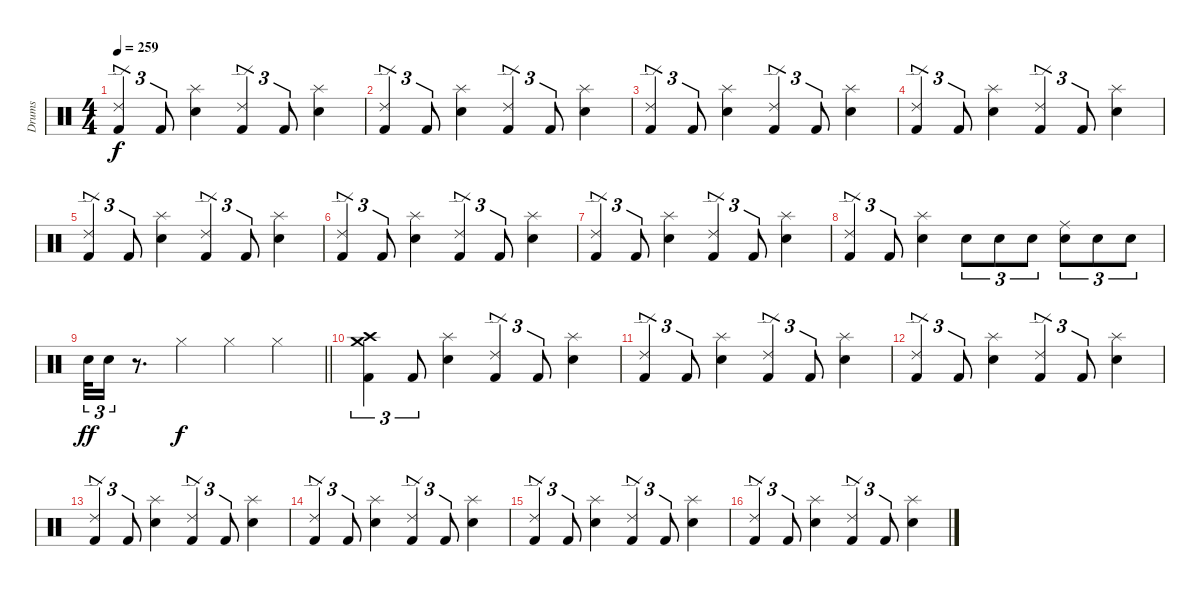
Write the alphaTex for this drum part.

\track ("Drums" "Drums") {instrument percussion}
\staff {score}
\articulation defaults
\ts (4 4)
\tempo 259
\clef neutral
\ks c
("Ride (edge) 2" "Kick (hit) 2").4{tu (3 2) dy f} "Kick (hit) 2".8{tu (3 2)} ("Splash (hit)" "Snare (hit) 2").4 ("Ride (edge) 2" "Kick (hit) 2").4{tu (3 2)} "Kick (hit) 2".8{tu (3 2)} ("Splash (hit)" "Snare (hit) 2").4 |
("Ride (edge) 2" "Kick (hit) 2").4{tu (3 2)} "Kick (hit) 2".8{tu (3 2)} ("Splash (hit)" "Snare (hit) 2").4 ("Ride (edge) 2" "Kick (hit) 2").4{tu (3 2)} "Kick (hit) 2".8{tu (3 2)} ("Splash (hit)" "Snare (hit) 2").4 |
("Ride (edge) 2" "Kick (hit) 2").4{tu (3 2)} "Kick (hit) 2".8{tu (3 2)} ("Splash (hit)" "Snare (hit) 2").4 ("Ride (edge) 2" "Kick (hit) 2").4{tu (3 2)} "Kick (hit) 2".8{tu (3 2)} ("Splash (hit)" "Snare (hit) 2").4 |
("Ride (edge) 2" "Kick (hit) 2").4{tu (3 2)} "Kick (hit) 2".8{tu (3 2)} ("Splash (hit)" "Snare (hit) 2").4 ("Ride (edge) 2" "Kick (hit) 2").4{tu (3 2)} "Kick (hit) 2".8{tu (3 2)} ("Splash (hit)" "Snare (hit) 2").4 |
("Ride (edge) 2" "Kick (hit) 2").4{tu (3 2)} "Kick (hit) 2".8{tu (3 2)} ("Splash (hit)" "Snare (hit) 2").4 ("Ride (edge) 2" "Kick (hit) 2").4{tu (3 2)} "Kick (hit) 2".8{tu (3 2)} ("Splash (hit)" "Snare (hit) 2").4 |
("Ride (edge) 2" "Kick (hit) 2").4{tu (3 2)} "Kick (hit) 2".8{tu (3 2)} ("Splash (hit)" "Snare (hit) 2").4 ("Ride (edge) 2" "Kick (hit) 2").4{tu (3 2)} "Kick (hit) 2".8{tu (3 2)} ("Splash (hit)" "Snare (hit) 2").4 |
("Ride (edge) 2" "Kick (hit) 2").4{tu (3 2)} "Kick (hit) 2".8{tu (3 2)} ("Splash (hit)" "Snare (hit) 2").4 ("Ride (edge) 2" "Kick (hit) 2").4{tu (3 2)} "Kick (hit) 2".8{tu (3 2)} ("Splash (hit)" "Snare (hit) 2").4 |
("Ride (edge) 2" "Kick (hit) 2").4{tu (3 2)} "Kick (hit) 2".8{tu (3 2)} ("Splash (hit)" "Snare (hit) 2").4 "Electric Snare (hit)".8{tu (3 2)} "Electric Snare (hit)".8{tu (3 2)} "Electric Snare (hit)".8{tu (3 2)} ("Electric Snare (hit)" "Ride (middle)").8{tu (3 2)} "Electric Snare (hit)".8{tu (3 2)} "Electric Snare (hit)".8{tu (3 2)} |
\barLineRight lightlight "Electric Snare (hit)".32{tu (3 2) dy ff} "Electric Snare (hit)".16{tu (3 2)}
r.8{d} "Hi-Hat (closed)".4{dy f} "Hi-Hat (closed)".4 "Hi-Hat (closed)".4 |
("Crash high (hit)" "Crash medium (hit)" "Kick (hit) 2").4{tu (3 2)} "Kick (hit) 2".8{tu (3 2)} ("Splash (hit)" "Snare (hit) 2").4 ("Ride (edge) 2" "Kick (hit) 2").4{tu (3 2)} "Kick (hit) 2".8{tu (3 2)} ("Splash (hit)" "Snare (hit) 2").4 |
("Ride (edge) 2" "Kick (hit) 2").4{tu (3 2)} "Kick (hit) 2".8{tu (3 2)} ("Splash (hit)" "Snare (hit) 2").4 ("Ride (edge) 2" "Kick (hit) 2").4{tu (3 2)} "Kick (hit) 2".8{tu (3 2)} ("Splash (hit)" "Snare (hit) 2").4 |
("Ride (edge) 2" "Kick (hit) 2").4{tu (3 2)} "Kick (hit) 2".8{tu (3 2)} ("Splash (hit)" "Snare (hit) 2").4 ("Ride (edge) 2" "Kick (hit) 2").4{tu (3 2)} "Kick (hit) 2".8{tu (3 2)} ("Splash (hit)" "Snare (hit) 2").4 |
("Ride (edge) 2" "Kick (hit) 2").4{tu (3 2)} "Kick (hit) 2".8{tu (3 2)} ("Splash (hit)" "Snare (hit) 2").4 ("Ride (edge) 2" "Kick (hit) 2").4{tu (3 2)} "Kick (hit) 2".8{tu (3 2)} ("Splash (hit)" "Snare (hit) 2").4 |
("Ride (edge) 2" "Kick (hit) 2").4{tu (3 2)} "Kick (hit) 2".8{tu (3 2)} ("Splash (hit)" "Snare (hit) 2").4 ("Ride (edge) 2" "Kick (hit) 2").4{tu (3 2)} "Kick (hit) 2".8{tu (3 2)} ("Splash (hit)" "Snare (hit) 2").4 |
("Ride (edge) 2" "Kick (hit) 2").4{tu (3 2)} "Kick (hit) 2".8{tu (3 2)} ("Splash (hit)" "Snare (hit) 2").4 ("Ride (edge) 2" "Kick (hit) 2").4{tu (3 2)} "Kick (hit) 2".8{tu (3 2)} ("Splash (hit)" "Snare (hit) 2").4 |
("Ride (edge) 2" "Kick (hit) 2").4{tu (3 2)} "Kick (hit) 2".8{tu (3 2)} ("Splash (hit)" "Snare (hit) 2").4 ("Ride (edge) 2" "Kick (hit) 2").4{tu (3 2)} "Kick (hit) 2".8{tu (3 2)} ("Splash (hit)" "Snare (hit) 2").4
